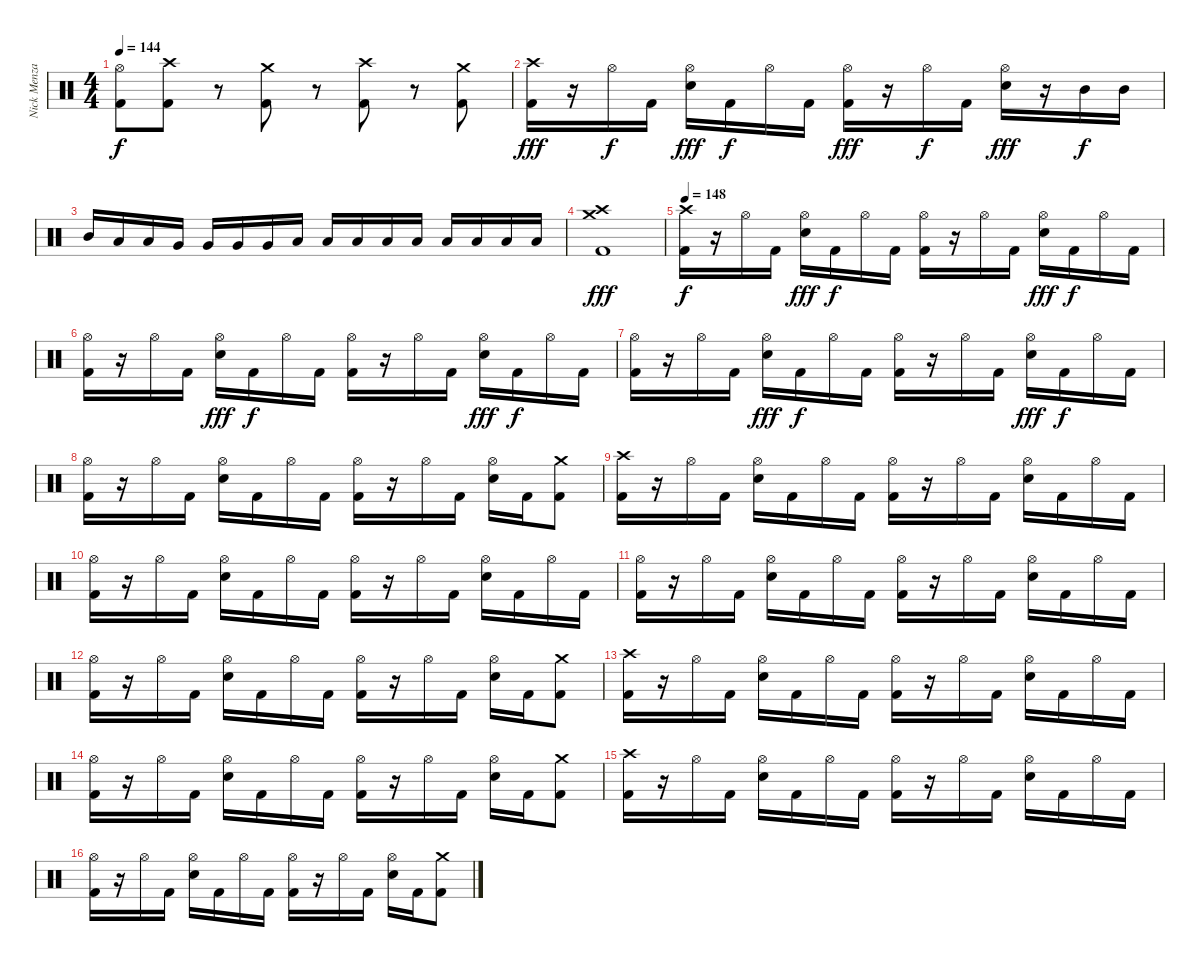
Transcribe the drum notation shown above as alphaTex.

\track ("Nick Menza" "Nick Menza") {instrument percussion}
\staff {score}
\articulation defaults
\ts (4 4)
\tempo 144
\clef neutral
\ks c
("Hi-Hat (open)" "Kick (hit) 2").8{dy f} ("Crash high (hit)" "Kick (hit) 2").8 r.8 ("Crash medium (hit)" "Kick (hit) 2").8 r.8 ("Crash high (hit)" "Kick (hit) 2").8 r.8 ("Crash medium (hit)" "Kick (hit) 2").8 |
("Crash high (hit)" "Kick (hit) 2").16{dy fff} r.16 "Hi-Hat (open)".16{dy f} "Kick (hit) 2".16 ("Hi-Hat (open)" "Electric Snare (hit)").16{dy fff} "Kick (hit) 2".16{dy f} "Hi-Hat (open)".16 "Kick (hit) 2".16 ("Hi-Hat (open)" "Kick (hit) 2").16{dy fff} r.16 "Hi-Hat (open)".16{dy f} "Kick (hit) 2".16 ("Hi-Hat (open)" "Electric Snare (hit)").16{dy fff} r.16 "Mid Tom (hit)".16{dy f} "Mid Tom (hit)".16 |
"Mid Tom (hit)".16 "Low Tom (hit)".16 "Low Tom (hit)".16 "Very Low Tom (hit)".16 "Very Low Tom (hit)".16 "Very Low Tom (hit)".16 "Very Low Tom (hit)".16 "Low Floor Tom (hit)".16 "Low Floor Tom (hit)".16 "Low Floor Tom (hit)".16 "Low Floor Tom (hit)".16 "Low Floor Tom (hit)".16 "Low Floor Tom (hit)".16 "Low Floor Tom (hit)".16 "Low Floor Tom (hit)".16 "Low Floor Tom (hit)".16 |
("Crash high (hit)" "Crash medium (hit)" "Kick (hit) 2").1{dy fff} |
\tempo 148
("Crash high (hit)" "Kick (hit) 2").16{dy f} r.16 "Hi-Hat (open)".16 "Kick (hit) 2".16 ("Hi-Hat (open)" "Electric Snare (hit)").16{dy fff} "Kick (hit) 2".16{dy f} "Hi-Hat (open)".16 "Kick (hit) 2".16 ("Hi-Hat (open)" "Kick (hit) 2").16 r.16 "Hi-Hat (open)".16 "Kick (hit) 2".16 ("Hi-Hat (open)" "Electric Snare (hit)").16{dy fff} "Kick (hit) 2".16{dy f} "Hi-Hat (open)".16 "Kick (hit) 2".16 |
("Hi-Hat (open)" "Kick (hit) 2").16 r.16 "Hi-Hat (open)".16 "Kick (hit) 2".16 ("Hi-Hat (open)" "Electric Snare (hit)").16{dy fff} "Kick (hit) 2".16{dy f} "Hi-Hat (open)".16 "Kick (hit) 2".16 ("Hi-Hat (open)" "Kick (hit) 2").16 r.16 "Hi-Hat (open)".16 "Kick (hit) 2".16 ("Hi-Hat (open)" "Electric Snare (hit)").16{dy fff} "Kick (hit) 2".16{dy f} "Hi-Hat (open)".16 "Kick (hit) 2".16 |
("Hi-Hat (open)" "Kick (hit) 2").16 r.16 "Hi-Hat (open)".16 "Kick (hit) 2".16 ("Hi-Hat (open)" "Electric Snare (hit)").16{dy fff} "Kick (hit) 2".16{dy f} "Hi-Hat (open)".16 "Kick (hit) 2".16 ("Hi-Hat (open)" "Kick (hit) 2").16 r.16 "Hi-Hat (open)".16 "Kick (hit) 2".16 ("Hi-Hat (open)" "Electric Snare (hit)").16{dy fff} "Kick (hit) 2".16{dy f} "Hi-Hat (open)".16 "Kick (hit) 2".16 |
("Hi-Hat (open)" "Kick (hit) 2").16 r.16 "Hi-Hat (open)".16 "Kick (hit) 2".16 ("Hi-Hat (open)" "Electric Snare (hit)").16 "Kick (hit) 2".16 "Hi-Hat (open)".16 "Kick (hit) 2".16 ("Hi-Hat (open)" "Kick (hit) 2").16 r.16 "Hi-Hat (open)".16 "Kick (hit) 2".16 ("Hi-Hat (open)" "Electric Snare (hit)").16 "Kick (hit) 2".16 ("Crash medium (hit)" "Kick (hit) 2").8 |
("Crash high (hit)" "Kick (hit) 2").16 r.16 "Hi-Hat (open)".16 "Kick (hit) 2".16 ("Hi-Hat (open)" "Electric Snare (hit)").16 "Kick (hit) 2".16 "Hi-Hat (open)".16 "Kick (hit) 2".16 ("Hi-Hat (open)" "Kick (hit) 2").16 r.16 "Hi-Hat (open)".16 "Kick (hit) 2".16 ("Hi-Hat (open)" "Electric Snare (hit)").16 "Kick (hit) 2".16 "Hi-Hat (open)".16 "Kick (hit) 2".16 |
("Hi-Hat (open)" "Kick (hit) 2").16 r.16 "Hi-Hat (open)".16 "Kick (hit) 2".16 ("Hi-Hat (open)" "Electric Snare (hit)").16 "Kick (hit) 2".16 "Hi-Hat (open)".16 "Kick (hit) 2".16 ("Hi-Hat (open)" "Kick (hit) 2").16 r.16 "Hi-Hat (open)".16 "Kick (hit) 2".16 ("Hi-Hat (open)" "Electric Snare (hit)").16 "Kick (hit) 2".16 "Hi-Hat (open)".16 "Kick (hit) 2".16 |
("Hi-Hat (open)" "Kick (hit) 2").16 r.16 "Hi-Hat (open)".16 "Kick (hit) 2".16 ("Hi-Hat (open)" "Electric Snare (hit)").16 "Kick (hit) 2".16 "Hi-Hat (open)".16 "Kick (hit) 2".16 ("Hi-Hat (open)" "Kick (hit) 2").16 r.16 "Hi-Hat (open)".16 "Kick (hit) 2".16 ("Hi-Hat (open)" "Electric Snare (hit)").16 "Kick (hit) 2".16 "Hi-Hat (open)".16 "Kick (hit) 2".16 |
("Hi-Hat (open)" "Kick (hit) 2").16 r.16 "Hi-Hat (open)".16 "Kick (hit) 2".16 ("Hi-Hat (open)" "Electric Snare (hit)").16 "Kick (hit) 2".16 "Hi-Hat (open)".16 "Kick (hit) 2".16 ("Hi-Hat (open)" "Kick (hit) 2").16 r.16 "Hi-Hat (open)".16 "Kick (hit) 2".16 ("Hi-Hat (open)" "Electric Snare (hit)").16 "Kick (hit) 2".16 ("Crash medium (hit)" "Kick (hit) 2").8 |
("Crash high (hit)" "Kick (hit) 2").16 r.16 "Hi-Hat (open)".16 "Kick (hit) 2".16 ("Hi-Hat (open)" "Electric Snare (hit)").16 "Kick (hit) 2".16 "Hi-Hat (open)".16 "Kick (hit) 2".16 ("Hi-Hat (open)" "Kick (hit) 2").16 r.16 "Hi-Hat (open)".16 "Kick (hit) 2".16 ("Hi-Hat (open)" "Electric Snare (hit)").16 "Kick (hit) 2".16 "Hi-Hat (open)".16 "Kick (hit) 2".16 |
("Hi-Hat (open)" "Kick (hit) 2").16 r.16 "Hi-Hat (open)".16 "Kick (hit) 2".16 ("Hi-Hat (open)" "Electric Snare (hit)").16 "Kick (hit) 2".16 "Hi-Hat (open)".16 "Kick (hit) 2".16 ("Hi-Hat (open)" "Kick (hit) 2").16 r.16 "Hi-Hat (open)".16 "Kick (hit) 2".16 ("Hi-Hat (open)" "Electric Snare (hit)").16 "Kick (hit) 2".16 ("Crash medium (hit)" "Kick (hit) 2").8 |
("Crash high (hit)" "Kick (hit) 2").16 r.16 "Hi-Hat (open)".16 "Kick (hit) 2".16 ("Hi-Hat (open)" "Electric Snare (hit)").16 "Kick (hit) 2".16 "Hi-Hat (open)".16 "Kick (hit) 2".16 ("Hi-Hat (open)" "Kick (hit) 2").16 r.16 "Hi-Hat (open)".16 "Kick (hit) 2".16 ("Hi-Hat (open)" "Electric Snare (hit)").16 "Kick (hit) 2".16 "Hi-Hat (open)".16 "Kick (hit) 2".16 |
("Hi-Hat (open)" "Kick (hit) 2").16 r.16 "Hi-Hat (open)".16 "Kick (hit) 2".16 ("Hi-Hat (open)" "Electric Snare (hit)").16 "Kick (hit) 2".16 "Hi-Hat (open)".16 "Kick (hit) 2".16 ("Hi-Hat (open)" "Kick (hit) 2").16 r.16 "Hi-Hat (open)".16 "Kick (hit) 2".16 ("Hi-Hat (open)" "Electric Snare (hit)").16 "Kick (hit) 2".16 ("Crash medium (hit)" "Kick (hit) 2").8
